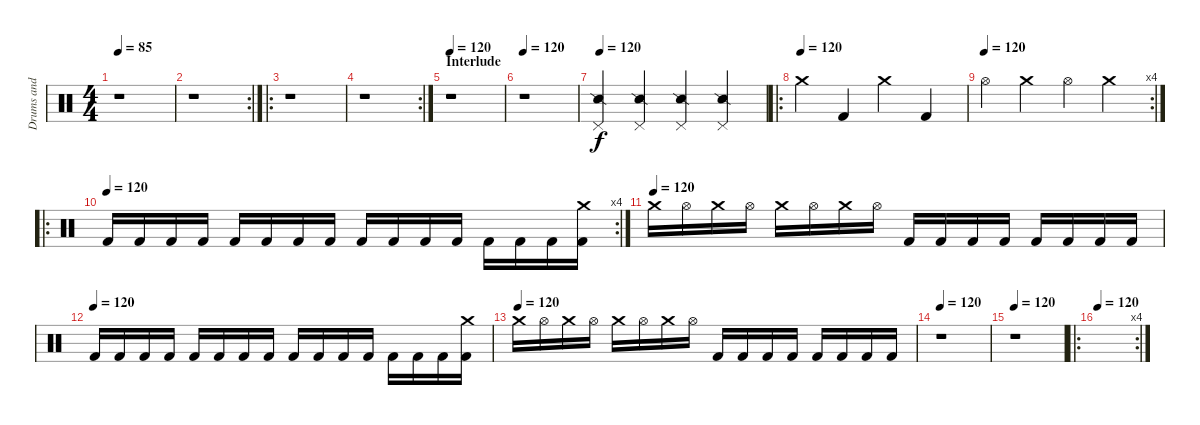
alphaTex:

\track ("Drums and Percussion" "Drums and ") {instrument percussion}
\staff {score}
\articulation defaults
\ts (4 4)
\tempo 85
\clef neutral
\ks c
r.1{dy f} |
\rc 2
r.1 |
\ro
r.1 |
\rc 2
r.1 |
\section ("" "Interlude")
\tempo 120
r.1 |
\tempo 120
r.1 |
\tempo 120
("Snare (side stick) 2" "Pedal Hi-Hat (hit)").4 ("Snare (side stick) 2" "Pedal Hi-Hat (hit)").4 ("Snare (side stick) 2" "Pedal Hi-Hat (hit)").4 ("Snare (side stick) 2" "Pedal Hi-Hat (hit)").4 |
\ro
\tempo (120)
"Crash medium (hit)".4 "Kick (hit) 2".4 "Crash medium (hit)".4 "Kick (hit) 2".4 |
\rc 4
\tempo (120)
"Hi-Hat (open)".4 "Crash medium (hit)".4 "Hi-Hat (open)".4 "Crash medium (hit)".4 |
\ro
\rc 4
\tempo (120)
"Kick (hit) 2".16 "Kick (hit) 2".16 "Kick (hit) 2".16 "Kick (hit) 2".16 "Kick (hit) 2".16 "Kick (hit) 2".16 "Kick (hit) 2".16 "Kick (hit) 2".16 "Kick (hit) 2".16 "Kick (hit) 2".16 "Kick (hit) 2".16 "Kick (hit) 2".16 "Kick (hit) 2".16 "Kick (hit) 2".16 "Kick (hit) 2".16 ("Crash medium (hit)" "Kick (hit) 2").16 |
\tempo (120)
"Crash medium (hit)".16 "Hi-Hat (open)".16 "Crash medium (hit)".16 "Hi-Hat (open)".16 "Crash medium (hit)".16 "Hi-Hat (open)".16 "Crash medium (hit)".16 "Hi-Hat (open)".16 "Kick (hit) 2".16 "Kick (hit) 2".16 "Kick (hit) 2".16 "Kick (hit) 2".16 "Kick (hit) 2".16 "Kick (hit) 2".16 "Kick (hit) 2".16 "Kick (hit) 2".16 |
\tempo (120)
"Kick (hit) 2".16 "Kick (hit) 2".16 "Kick (hit) 2".16 "Kick (hit) 2".16 "Kick (hit) 2".16 "Kick (hit) 2".16 "Kick (hit) 2".16 "Kick (hit) 2".16 "Kick (hit) 2".16 "Kick (hit) 2".16 "Kick (hit) 2".16 "Kick (hit) 2".16 "Kick (hit) 2".16 "Kick (hit) 2".16 "Kick (hit) 2".16 ("Crash medium (hit)" "Kick (hit) 2").16 |
\tempo (120)
"Crash medium (hit)".16 "Hi-Hat (open)".16 "Crash medium (hit)".16 "Hi-Hat (open)".16 "Crash medium (hit)".16 "Hi-Hat (open)".16 "Crash medium (hit)".16 "Hi-Hat (open)".16 "Kick (hit) 2".16 "Kick (hit) 2".16 "Kick (hit) 2".16 "Kick (hit) 2".16 "Kick (hit) 2".16 "Kick (hit) 2".16 "Kick (hit) 2".16 "Kick (hit) 2".16 |
\tempo 120
r.1 |
\tempo 120
r.1 |
\ro
\rc 4
\tempo 120
